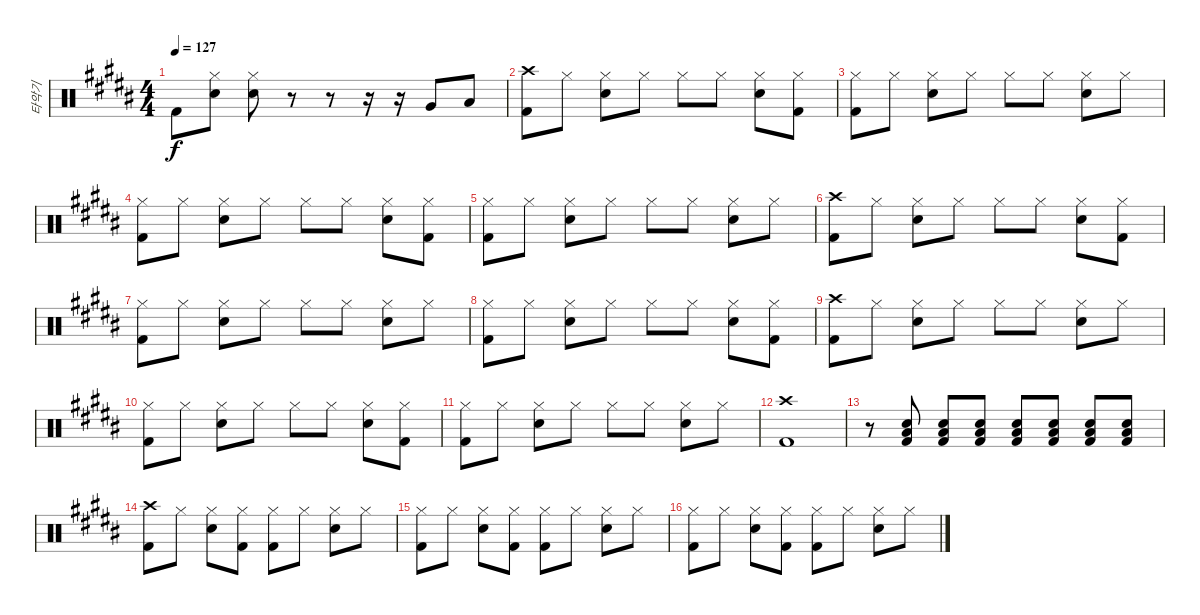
\track ("타악기" "타악기") {instrument percussion}
\staff {score}
\articulation defaults
\ts (4 4)
\tempo 127
\clef neutral
\ks b "Kick (hit) 2".8{dy f}
("Hi-Hat (closed)" "Electric Snare (hit)").8 ("Hi-Hat (closed)" "Electric Snare (hit)").8 r.8 r.8 r.16 r.16 "Very Low Tom (hit)".8 "Low Tom (hit)".8 |
("Crash high (hit)" "Kick (hit) 2").8 "Hi-Hat (closed)".8 ("Hi-Hat (closed)" "Electric Snare (hit)").8 "Hi-Hat (closed)".8 "Hi-Hat (closed)".8 "Hi-Hat (closed)".8 ("Hi-Hat (closed)" "Electric Snare (hit)").8 ("Hi-Hat (closed)" "Kick (hit) 2").8 |
("Hi-Hat (closed)" "Kick (hit) 2").8 "Hi-Hat (closed)".8 ("Hi-Hat (closed)" "Electric Snare (hit)").8 "Hi-Hat (closed)".8 "Hi-Hat (closed)".8 "Hi-Hat (closed)".8 ("Hi-Hat (closed)" "Electric Snare (hit)").8 "Hi-Hat (closed)".8 |
("Hi-Hat (closed)" "Kick (hit) 2").8 "Hi-Hat (closed)".8 ("Hi-Hat (closed)" "Electric Snare (hit)").8 "Hi-Hat (closed)".8 "Hi-Hat (closed)".8 "Hi-Hat (closed)".8 ("Hi-Hat (closed)" "Electric Snare (hit)").8 ("Hi-Hat (closed)" "Kick (hit) 2").8 |
("Hi-Hat (closed)" "Kick (hit) 2").8 "Hi-Hat (closed)".8 ("Hi-Hat (closed)" "Electric Snare (hit)").8 "Hi-Hat (closed)".8 "Hi-Hat (closed)".8 "Hi-Hat (closed)".8 ("Hi-Hat (closed)" "Electric Snare (hit)").8 "Hi-Hat (closed)".8 |
("Crash high (hit)" "Kick (hit) 2").8 "Hi-Hat (closed)".8 ("Hi-Hat (closed)" "Electric Snare (hit)").8 "Hi-Hat (closed)".8 "Hi-Hat (closed)".8 "Hi-Hat (closed)".8 ("Hi-Hat (closed)" "Electric Snare (hit)").8 ("Hi-Hat (closed)" "Kick (hit) 2").8 |
("Hi-Hat (closed)" "Kick (hit) 2").8 "Hi-Hat (closed)".8 ("Hi-Hat (closed)" "Electric Snare (hit)").8 "Hi-Hat (closed)".8 "Hi-Hat (closed)".8 "Hi-Hat (closed)".8 ("Hi-Hat (closed)" "Electric Snare (hit)").8 "Hi-Hat (closed)".8 |
("Hi-Hat (closed)" "Kick (hit) 2").8 "Hi-Hat (closed)".8 ("Hi-Hat (closed)" "Electric Snare (hit)").8 "Hi-Hat (closed)".8 "Hi-Hat (closed)".8 "Hi-Hat (closed)".8 ("Hi-Hat (closed)" "Electric Snare (hit)").8 ("Hi-Hat (closed)" "Kick (hit) 2").8 |
("Crash high (hit)" "Kick (hit) 2").8 "Hi-Hat (closed)".8 ("Hi-Hat (closed)" "Electric Snare (hit)").8 "Hi-Hat (closed)".8 "Hi-Hat (closed)".8 "Hi-Hat (closed)".8 ("Hi-Hat (closed)" "Electric Snare (hit)").8 "Hi-Hat (closed)".8 |
("Hi-Hat (closed)" "Kick (hit) 2").8 "Hi-Hat (closed)".8 ("Hi-Hat (closed)" "Electric Snare (hit)").8 "Hi-Hat (closed)".8 "Hi-Hat (closed)".8 "Hi-Hat (closed)".8 ("Hi-Hat (closed)" "Electric Snare (hit)").8 ("Hi-Hat (closed)" "Kick (hit) 2").8 |
("Hi-Hat (closed)" "Kick (hit) 2").8 "Hi-Hat (closed)".8 ("Hi-Hat (closed)" "Electric Snare (hit)").8 "Hi-Hat (closed)".8 "Hi-Hat (closed)".8 "Hi-Hat (closed)".8 ("Hi-Hat (closed)" "Electric Snare (hit)").8 "Hi-Hat (closed)".8 |
("Crash high (hit)" "Kick (hit) 2").1 |
r.8 ("Low Floor Tom (hit)" "Electric Snare (hit)" "Kick (hit) 2").8 ("Low Floor Tom (hit)" "Electric Snare (hit)" "Kick (hit) 2").8 ("Low Floor Tom (hit)" "Electric Snare (hit)" "Kick (hit) 2").8 ("Low Floor Tom (hit)" "Electric Snare (hit)" "Kick (hit) 2").8 ("Low Floor Tom (hit)" "Electric Snare (hit)" "Kick (hit) 2").8 ("Low Floor Tom (hit)" "Electric Snare (hit)" "Kick (hit) 2").8 ("Low Floor Tom (hit)" "Electric Snare (hit)" "Kick (hit) 2").8 |
("Crash high (hit)" "Kick (hit) 2").8 "Hi-Hat (closed)".8 ("Hi-Hat (closed)" "Electric Snare (hit)").8 ("Hi-Hat (closed)" "Kick (hit) 2").8 ("Hi-Hat (closed)" "Kick (hit) 2").8 "Hi-Hat (closed)".8 ("Hi-Hat (closed)" "Electric Snare (hit)").8 "Hi-Hat (closed)".8 |
("Hi-Hat (closed)" "Kick (hit) 2").8 "Hi-Hat (closed)".8 ("Hi-Hat (closed)" "Electric Snare (hit)").8 ("Hi-Hat (closed)" "Kick (hit) 2").8 ("Hi-Hat (closed)" "Kick (hit) 2").8 "Hi-Hat (closed)".8 ("Hi-Hat (closed)" "Electric Snare (hit)").8 "Hi-Hat (closed)".8 |
("Hi-Hat (closed)" "Kick (hit) 2").8 "Hi-Hat (closed)".8 ("Hi-Hat (closed)" "Electric Snare (hit)").8 ("Hi-Hat (closed)" "Kick (hit) 2").8 ("Hi-Hat (closed)" "Kick (hit) 2").8 "Hi-Hat (closed)".8 ("Hi-Hat (closed)" "Electric Snare (hit)").8 "Hi-Hat (closed)".8
